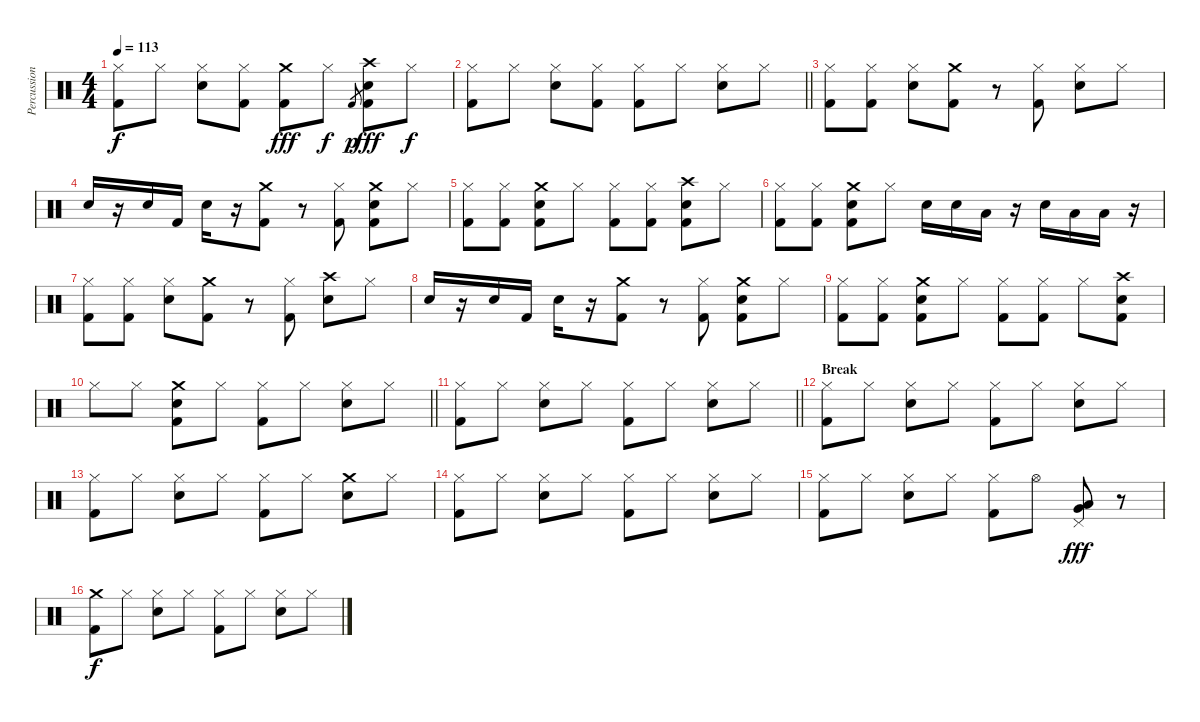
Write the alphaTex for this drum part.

\track ("Percussion" "Percussion") {instrument percussion}
\staff {score}
\articulation defaults
\ts (4 4)
\tempo 113
\clef neutral
\ks c
("Hi-Hat (closed)" "Kick (hit) 2").8{dy f} "Hi-Hat (closed)".8 ("Hi-Hat (closed)" "Snare (hit) 2").8 ("Hi-Hat (closed)" "Kick (hit) 2").8 ("Crash medium (hit)" "Kick (hit) 2").8{dy fff} "Hi-Hat (closed)".8{dy f} "Kick (hit) 2".8{gr dy p} ("Crash high (hit)" "Snare (hit) 2" "Kick (hit) 2").8{dy fff} "Hi-Hat (closed)".8{dy f} |
\barLineRight lightlight
("Hi-Hat (closed)" "Kick (hit) 2").8 "Hi-Hat (closed)".8 ("Hi-Hat (closed)" "Snare (hit) 2").8 ("Hi-Hat (closed)" "Kick (hit) 2").8 ("Hi-Hat (closed)" "Kick (hit) 2").8 "Hi-Hat (closed)".8 ("Hi-Hat (closed)" "Snare (hit) 2").8 "Hi-Hat (closed)".8 |
("Hi-Hat (closed)" "Kick (hit) 2").8 ("Hi-Hat (closed)" "Kick (hit) 2").8 ("Hi-Hat (closed)" "Snare (hit) 2").8 ("Crash medium (hit)" "Kick (hit) 2").8 r.8 ("Hi-Hat (closed)" "Kick (hit) 2").8 ("Hi-Hat (closed)" "Snare (hit) 2").8 "Hi-Hat (closed)".8 |
"Snare (hit) 2".16 r.16 "Snare (hit) 2".16 "Kick (hit) 2".16 "Snare (hit) 2".16 r.16 ("Crash medium (hit)" "Kick (hit) 2").8 r.8 ("Hi-Hat (closed)" "Kick (hit) 2").8 ("Crash medium (hit)" "Snare (hit) 2" "Kick (hit) 2").8 "Hi-Hat (closed)".8 |
("Hi-Hat (closed)" "Kick (hit) 2").8 ("Hi-Hat (closed)" "Kick (hit) 2").8 ("Crash medium (hit)" "Snare (hit) 2" "Kick (hit) 2").8 "Hi-Hat (closed)".8 ("Hi-Hat (closed)" "Kick (hit) 2").8 ("Hi-Hat (closed)" "Kick (hit) 2").8 ("Crash high (hit)" "Snare (hit) 2" "Kick (hit) 2").8 "Hi-Hat (closed)".8 |
("Hi-Hat (closed)" "Kick (hit) 2").8 ("Hi-Hat (closed)" "Kick (hit) 2").8 ("Crash medium (hit)" "Snare (hit) 2" "Kick (hit) 2").8 "Hi-Hat (closed)".8 "Snare (hit) 2".16 "Snare (hit) 2".16 "Low Tom (hit)".16 r.16 "Snare (hit) 2".16 "Low Tom (hit)".16 "Low Tom (hit)".16 r.16 |
("Hi-Hat (closed)" "Kick (hit) 2").8 ("Hi-Hat (closed)" "Kick (hit) 2").8 ("Hi-Hat (closed)" "Snare (hit) 2").8 ("Crash medium (hit)" "Kick (hit) 2").8 r.8 ("Hi-Hat (closed)" "Kick (hit) 2").8 ("Crash high (hit)" "Snare (hit) 2").8 "Hi-Hat (closed)".8 |
"Snare (hit) 2".16 r.16 "Snare (hit) 2".16 "Kick (hit) 2".16 "Snare (hit) 2".16 r.16 ("Crash medium (hit)" "Kick (hit) 2").8 r.8 ("Hi-Hat (closed)" "Kick (hit) 2").8 ("Crash medium (hit)" "Snare (hit) 2" "Kick (hit) 2").8 "Hi-Hat (closed)".8 |
("Hi-Hat (closed)" "Kick (hit) 2").8 ("Hi-Hat (closed)" "Kick (hit) 2").8 ("Crash medium (hit)" "Snare (hit) 2" "Kick (hit) 2").8 "Hi-Hat (closed)".8 ("Hi-Hat (closed)" "Kick (hit) 2").8 ("Hi-Hat (closed)" "Kick (hit) 2").8 "Hi-Hat (closed)".8 ("Crash high (hit)" "Snare (hit) 2" "Kick (hit) 2").8 |
\barLineRight lightlight "Hi-Hat (closed)".8 "Hi-Hat (closed)".8
("Crash medium (hit)" "Snare (hit) 2" "Kick (hit) 2").8 "Hi-Hat (closed)".8 ("Hi-Hat (closed)" "Kick (hit) 2").8 "Hi-Hat (closed)".8 ("Hi-Hat (closed)" "Snare (hit) 2").8 "Hi-Hat (closed)".8 |
\barLineRight lightlight
("Hi-Hat (closed)" "Kick (hit) 2").8 "Hi-Hat (closed)".8 ("Hi-Hat (closed)" "Snare (hit) 2").8 "Hi-Hat (closed)".8 ("Hi-Hat (closed)" "Kick (hit) 2").8 "Hi-Hat (closed)".8 ("Hi-Hat (closed)" "Snare (hit) 2").8 "Hi-Hat (closed)".8 |
\section ("" "Break")
("Hi-Hat (closed)" "Kick (hit) 2").8 "Hi-Hat (closed)".8 ("Hi-Hat (closed)" "Snare (hit) 2").8 "Hi-Hat (closed)".8 ("Hi-Hat (closed)" "Kick (hit) 2").8 "Hi-Hat (closed)".8 ("Hi-Hat (closed)" "Snare (hit) 2").8 "Hi-Hat (closed)".8 |
("Hi-Hat (closed)" "Kick (hit) 2").8 "Hi-Hat (closed)".8 ("Hi-Hat (closed)" "Snare (hit) 2").8 "Hi-Hat (closed)".8 ("Hi-Hat (closed)" "Kick (hit) 2").8 "Hi-Hat (closed)".8 ("Crash medium (hit)" "Snare (hit) 2").8 "Hi-Hat (closed)".8 |
("Hi-Hat (closed)" "Kick (hit) 2").8 "Hi-Hat (closed)".8 ("Hi-Hat (closed)" "Snare (hit) 2").8 "Hi-Hat (closed)".8 ("Hi-Hat (closed)" "Kick (hit) 2").8 "Hi-Hat (closed)".8 ("Hi-Hat (closed)" "Snare (hit) 2").8 "Hi-Hat (closed)".8 |
("Hi-Hat (closed)" "Kick (hit) 2").8 "Hi-Hat (closed)".8 ("Hi-Hat (closed)" "Snare (hit) 2").8 "Hi-Hat (closed)".8 ("Hi-Hat (closed)" "Kick (hit) 2").8 "Hi-Hat (open)".8 ("Pedal Hi-Hat (hit)" "Very Low Tom (hit)" "Low Floor Tom (hit)").8{dy fff} r.8 |
("Crash medium (hit)" "Kick (hit) 2").8{dy f} "Hi-Hat (closed)".8 ("Hi-Hat (closed)" "Snare (hit) 2").8 "Hi-Hat (closed)".8 ("Hi-Hat (closed)" "Kick (hit) 2").8 "Hi-Hat (closed)".8 ("Hi-Hat (closed)" "Snare (hit) 2").8 "Hi-Hat (closed)".8
